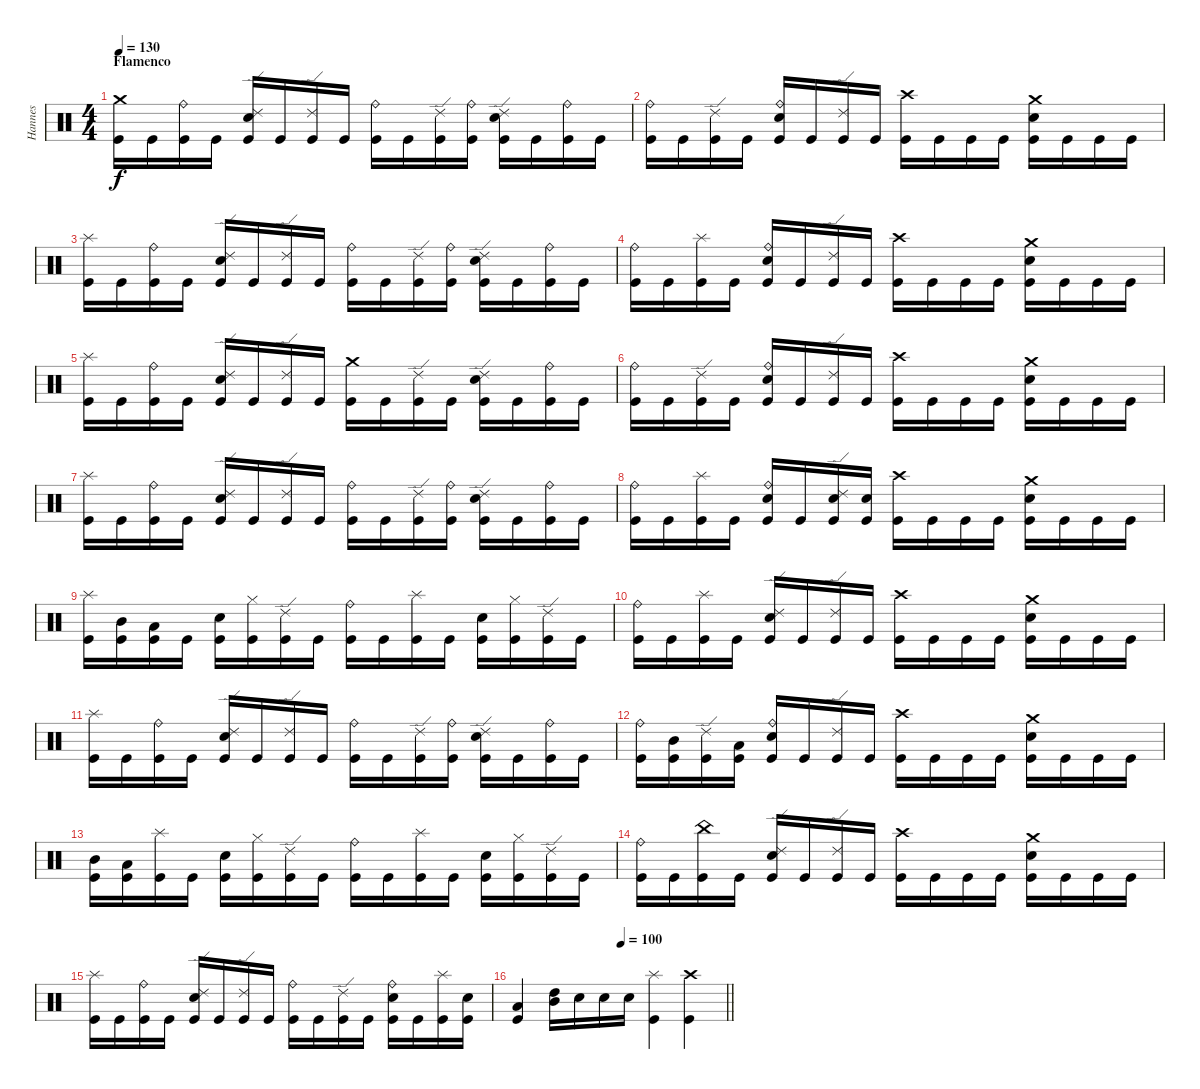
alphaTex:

\track ("Hannes" "Hannes") {instrument percussion}
\staff {score}
\articulation defaults
\ts (4 4)
\section ("" "Flamenco")
\tempo 130
\clef neutral
\ks c
("Crash medium (hit)" "Kick (hit)").16{dy f} "Kick (hit)".16 ("Ride (bell)" "Kick (hit)").16 "Kick (hit)".16 ("Ride (edge) 2" "Electric Snare (hit)" "Kick (hit)").16 "Kick (hit)".16 ("Ride (edge) 2" "Kick (hit)").16 "Kick (hit)".16 ("Ride (bell)" "Kick (hit)").16 "Kick (hit)".16 ("Ride (edge) 2" "Kick (hit)").16 ("Ride (bell)" "Kick (hit)").16 ("Ride (edge) 2" "Electric Snare (hit)" "Kick (hit)").16 "Kick (hit)".16 ("Ride (bell)" "Kick (hit)").16 "Kick (hit)".16 |
("Ride (bell)" "Kick (hit)").16 "Kick (hit)".16 ("Ride (edge) 2" "Kick (hit)").16 "Kick (hit)".16 ("Ride (bell)" "Electric Snare (hit)" "Kick (hit)").16 "Kick (hit)".16 ("Ride (edge) 2" "Kick (hit)").16 "Kick (hit)".16 ("Crash high (hit)" "Kick (hit)").16 "Kick (hit)".16 "Kick (hit)".16 "Kick (hit)".16 ("Crash medium (hit)" "Electric Snare (hit)" "Kick (hit)").16 "Kick (hit)".16 "Kick (hit)".16 "Kick (hit)".16 |
("Splash (hit)" "Kick (hit)").16 "Kick (hit)".16 ("Ride (bell)" "Kick (hit)").16 "Kick (hit)".16 ("Ride (edge) 2" "Electric Snare (hit)" "Kick (hit)").16 "Kick (hit)".16 ("Ride (edge) 2" "Kick (hit)").16 "Kick (hit)".16 ("Ride (bell)" "Kick (hit)").16 "Kick (hit)".16 ("Ride (edge) 2" "Kick (hit)").16 ("Ride (bell)" "Kick (hit)").16 ("Ride (edge) 2" "Electric Snare (hit)" "Kick (hit)").16 "Kick (hit)".16 ("Ride (bell)" "Kick (hit)").16 "Kick (hit)".16 |
("Ride (bell)" "Kick (hit)").16 "Kick (hit)".16 ("Splash (hit)" "Kick (hit)").16 "Kick (hit)".16 ("Ride (bell)" "Electric Snare (hit)" "Kick (hit)").16 "Kick (hit)".16 ("Ride (edge) 2" "Kick (hit)").16 "Kick (hit)".16 ("Crash high (hit)" "Kick (hit)").16 "Kick (hit)".16 "Kick (hit)".16 "Kick (hit)".16 ("Crash medium (hit)" "Electric Snare (hit)" "Kick (hit)").16 "Kick (hit)".16 "Kick (hit)".16 "Kick (hit)".16 |
("Splash (hit)" "Kick (hit)").16 "Kick (hit)".16 ("Ride (bell)" "Kick (hit)").16 "Kick (hit)".16 ("Ride (edge) 2" "Electric Snare (hit)" "Kick (hit)").16 "Kick (hit)".16 ("Ride (edge) 2" "Kick (hit)").16 "Kick (hit)".16 ("Crash medium (hit)" "Kick (hit)").16 "Kick (hit)".16 ("Ride (edge) 2" "Kick (hit)").16 "Kick (hit)".16 ("Ride (edge) 2" "Electric Snare (hit)" "Kick (hit)").16 "Kick (hit)".16 ("Ride (bell)" "Kick (hit)").16 "Kick (hit)".16 |
("Ride (bell)" "Kick (hit)").16 "Kick (hit)".16 ("Ride (edge) 2" "Kick (hit)").16 "Kick (hit)".16 ("Ride (bell)" "Electric Snare (hit)" "Kick (hit)").16 "Kick (hit)".16 ("Ride (edge) 2" "Kick (hit)").16 "Kick (hit)".16 ("Crash high (hit)" "Kick (hit)").16 "Kick (hit)".16 "Kick (hit)".16 "Kick (hit)".16 ("Crash medium (hit)" "Electric Snare (hit)" "Kick (hit)").16 "Kick (hit)".16 "Kick (hit)".16 "Kick (hit)".16 |
("Splash (hit)" "Kick (hit)").16 "Kick (hit)".16 ("Ride (bell)" "Kick (hit)").16 "Kick (hit)".16 ("Ride (edge) 2" "Electric Snare (hit)" "Kick (hit)").16 "Kick (hit)".16 ("Ride (edge) 2" "Kick (hit)").16 "Kick (hit)".16 ("Ride (bell)" "Kick (hit)").16 "Kick (hit)".16 ("Ride (edge) 2" "Kick (hit)").16 ("Ride (bell)" "Kick (hit)").16 ("Ride (edge) 2" "Electric Snare (hit)" "Kick (hit)").16 "Kick (hit)".16 ("Ride (bell)" "Kick (hit)").16 "Kick (hit)".16 |
("Ride (bell)" "Kick (hit)").16 "Kick (hit)".16 ("Splash (hit)" "Kick (hit)").16 "Kick (hit)".16 ("Ride (bell)" "Electric Snare (hit)" "Kick (hit)").16 "Kick (hit)".16 ("Ride (edge) 2" "Electric Snare (hit)" "Kick (hit)").16 ("Electric Snare (hit)" "Kick (hit)").16 ("Crash high (hit)" "Kick (hit)").16 "Kick (hit)".16 "Kick (hit)".16 "Kick (hit)".16 ("Crash medium (hit)" "Electric Snare (hit)" "Kick (hit)").16 "Kick (hit)".16 "Kick (hit)".16 "Kick (hit)".16 |
("Splash (hit)" "Kick (hit)").16 ("Mid Tom (hit)" "Kick (hit)").16 ("Low Tom (hit)" "Kick (hit)").16 "Kick (hit)".16 ("Electric Snare (hit)" "Kick (hit)").16 ("Hi-Hat (closed)" "Kick (hit)").16 ("Ride (edge) 2" "Kick (hit)").16 "Kick (hit)".16 ("Ride (bell)" "Kick (hit)").16 "Kick (hit)".16 ("Splash (hit)" "Kick (hit)").16 "Kick (hit)".16 ("Electric Snare (hit)" "Kick (hit)").16 ("Hi-Hat (closed)" "Kick (hit)").16 ("Ride (edge) 2" "Kick (hit)").16 "Kick (hit)".16 |
("Ride (bell)" "Kick (hit)").16 "Kick (hit)".16 ("Splash (hit)" "Kick (hit)").16 "Kick (hit)".16 ("Ride (edge) 2" "Electric Snare (hit)" "Kick (hit)").16 "Kick (hit)".16 ("Ride (edge) 2" "Kick (hit)").16 "Kick (hit)".16 ("Crash high (hit)" "Kick (hit)").16 "Kick (hit)".16 "Kick (hit)".16 "Kick (hit)".16 ("Crash medium (hit)" "Electric Snare (hit)" "Kick (hit)").16 "Kick (hit)".16 "Kick (hit)".16 "Kick (hit)".16 |
("Splash (hit)" "Kick (hit)").16 "Kick (hit)".16 ("Ride (bell)" "Kick (hit)").16 "Kick (hit)".16 ("Ride (edge) 2" "Electric Snare (hit)" "Kick (hit)").16 "Kick (hit)".16 ("Ride (edge) 2" "Kick (hit)").16 "Kick (hit)".16 ("Ride (bell)" "Kick (hit)").16 "Kick (hit)".16 ("Ride (edge) 2" "Kick (hit)").16 ("Ride (bell)" "Kick (hit)").16 ("Ride (edge) 2" "Electric Snare (hit)" "Kick (hit)").16 "Kick (hit)".16 ("Ride (bell)" "Kick (hit)").16 "Kick (hit)".16 |
("Ride (bell)" "Kick (hit)").16 ("Mid Tom (hit)" "Kick (hit)").16 ("Ride (edge) 2" "Kick (hit)").16 ("Low Tom (hit)" "Kick (hit)").16 ("Ride (bell)" "Electric Snare (hit)" "Kick (hit)").16 "Kick (hit)".16 ("Ride (edge) 2" "Kick (hit)").16 "Kick (hit)".16 ("Crash high (hit)" "Kick (hit)").16 "Kick (hit)".16 "Kick (hit)".16 "Kick (hit)".16 ("Crash medium (hit)" "Electric Snare (hit)" "Kick (hit)").16 "Kick (hit)".16 "Kick (hit)".16 "Kick (hit)".16 |
("Mid Tom (hit)" "Kick (hit)").16 ("Low Tom (hit)" "Kick (hit)").16 ("Splash (hit)" "Kick (hit)").16 "Kick (hit)".16 ("Electric Snare (hit)" "Kick (hit)").16 ("Hi-Hat (closed)" "Kick (hit)").16 ("Ride (edge) 2" "Kick (hit)").16 "Kick (hit)".16 ("Ride (bell)" "Kick (hit)").16 "Kick (hit)".16 ("Splash (hit)" "Kick (hit)").16 "Kick (hit)".16 ("Electric Snare (hit)" "Kick (hit)").16 ("Hi-Hat (closed)" "Kick (hit)").16 ("Ride (edge) 2" "Kick (hit)").16 "Kick (hit)".16 |
("Ride (bell)" "Kick (hit)").16 "Kick (hit)".16 ("China (hit)" "Kick (hit)").16 "Kick (hit)".16 ("Ride (edge) 2" "Electric Snare (hit)" "Kick (hit)").16 "Kick (hit)".16 ("Ride (edge) 2" "Kick (hit)").16 "Kick (hit)".16 ("Crash high (hit)" "Kick (hit)").16 "Kick (hit)".16 "Kick (hit)".16 "Kick (hit)".16 ("Crash medium (hit)" "Electric Snare (hit)" "Kick (hit)").16 "Kick (hit)".16 "Kick (hit)".16 "Kick (hit)".16 |
("Splash (hit)" "Kick (hit)").16 "Kick (hit)".16 ("Ride (bell)" "Kick (hit)").16 "Kick (hit)".16 ("Ride (edge) 2" "Electric Snare (hit)" "Kick (hit)").16 "Kick (hit)".16 ("Ride (edge) 2" "Kick (hit)").16 "Kick (hit)".16 ("Ride (bell)" "Kick (hit)").16 "Kick (hit)".16 ("Ride (edge) 2" "Kick (hit)").16 "Kick (hit)".16 ("Ride (bell)" "Electric Snare (hit)" "Kick (hit)").16 "Kick (hit)".16 ("Splash (hit)" "Kick (hit)").16 ("Electric Snare (hit)" "Kick (hit)").16 |
\tempo (100 0.5)
\barLineRight lightlight
("Low Tom (hit)" "Kick (hit)").4 ("Mid Tom (hit)" "High Tom (hit)").16 "Electric Snare (hit)".16 "Electric Snare (hit)".16 "Electric Snare (hit)".16 ("Splash (hit)" "Kick (hit)").4 ("Crash high (hit)" "Kick (hit)").4
